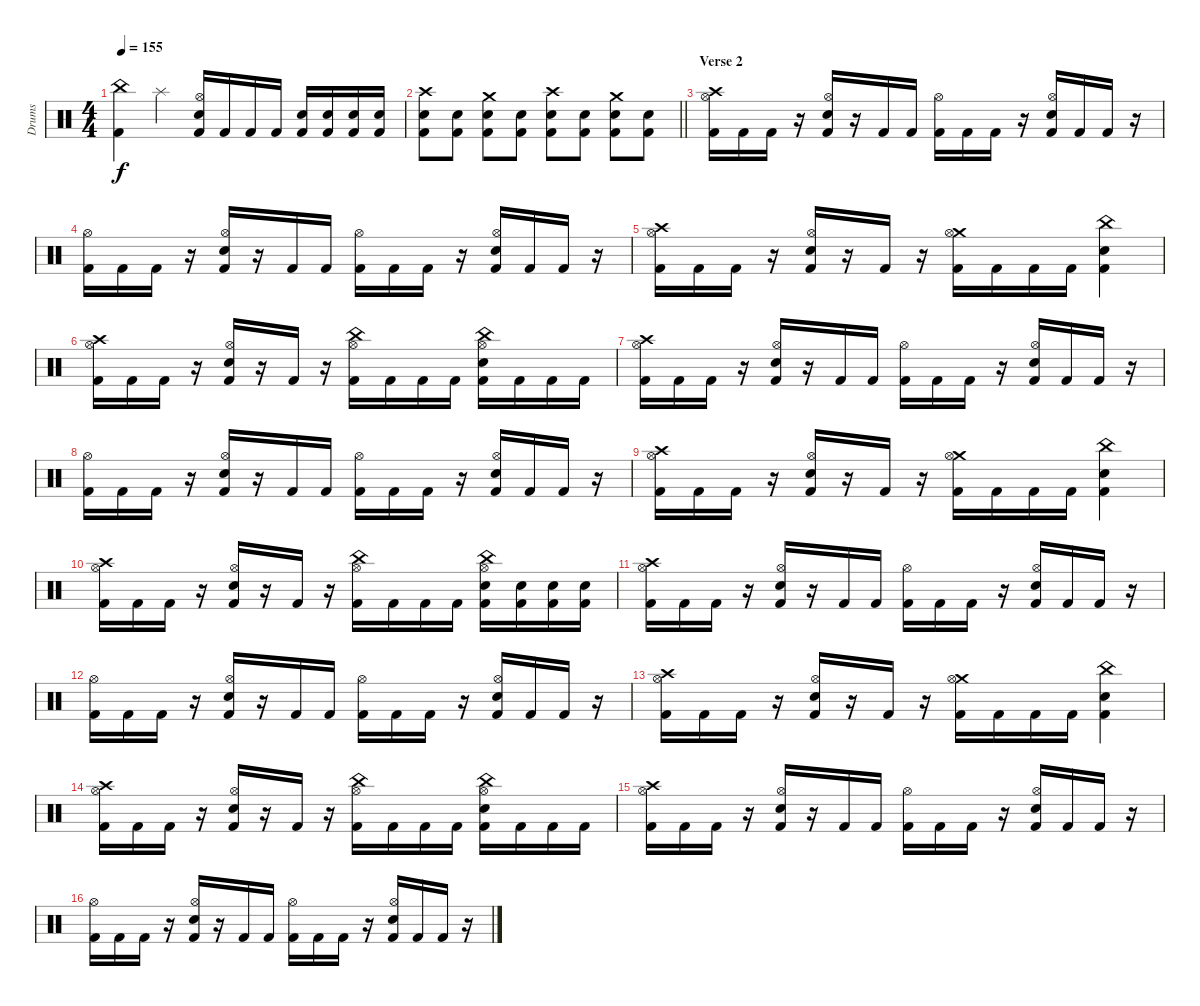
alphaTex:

\track ("Drums" "Drums") {instrument percussion}
\staff {score}
\articulation defaults
\ts (4 4)
\tempo 155
\clef neutral
\ks c
("China (hit)" "Kick (hit) 2").4{dy f} "Splash (hit)".4 ("Hi-Hat (open)" "Snare (hit) 2" "Kick (hit) 2").16 "Kick (hit) 2".16 "Kick (hit) 2".16 "Kick (hit) 2".16 ("Snare (hit) 2" "Kick (hit) 2").16 ("Snare (hit) 2" "Kick (hit) 2").16 ("Snare (hit) 2" "Kick (hit) 2").16 ("Snare (hit) 2" "Kick (hit) 2").16 |
\barLineRight lightlight
("Crash high (hit)" "Snare (hit) 2" "Kick (hit) 2").8 ("Snare (hit) 2" "Kick (hit) 2").8 ("Crash medium (hit)" "Snare (hit) 2" "Kick (hit) 2").8 ("Snare (hit) 2" "Kick (hit) 2").8 ("Crash high (hit)" "Snare (hit) 2" "Kick (hit) 2").8 ("Snare (hit) 2" "Kick (hit) 2").8 ("Crash medium (hit)" "Snare (hit) 2" "Kick (hit) 2").8 ("Snare (hit) 2" "Kick (hit) 2").8 |
\section ("" "Verse 2")
("Crash high (hit)" "Hi-Hat (open)" "Kick (hit) 2").16 "Kick (hit) 2".16 "Kick (hit) 2".16 r.16 ("Hi-Hat (open)" "Snare (hit) 2" "Kick (hit) 2").16 r.16 "Kick (hit) 2".16 "Kick (hit) 2".16 ("Hi-Hat (open)" "Kick (hit) 2").16 "Kick (hit) 2".16 "Kick (hit) 2".16 r.16 ("Hi-Hat (open)" "Snare (hit) 2" "Kick (hit) 2").16 "Kick (hit) 2".16 "Kick (hit) 2".16 r.16 |
("Hi-Hat (open)" "Kick (hit) 2").16 "Kick (hit) 2".16 "Kick (hit) 2".16 r.16 ("Hi-Hat (open)" "Snare (hit) 2" "Kick (hit) 2").16 r.16 "Kick (hit) 2".16 "Kick (hit) 2".16 ("Hi-Hat (open)" "Kick (hit) 2").16 "Kick (hit) 2".16 "Kick (hit) 2".16 r.16 ("Hi-Hat (open)" "Snare (hit) 2" "Kick (hit) 2").16 "Kick (hit) 2".16 "Kick (hit) 2".16 r.16 |
("Crash high (hit)" "Hi-Hat (open)" "Kick (hit) 2").16 "Kick (hit) 2".16 "Kick (hit) 2".16 r.16 ("Hi-Hat (open)" "Snare (hit) 2" "Kick (hit) 2").16 r.16 "Kick (hit) 2".16 r.16 ("Crash medium (hit)" "Hi-Hat (open)" "Kick (hit) 2").16 "Kick (hit) 2".16 "Kick (hit) 2".16 "Kick (hit) 2".16 ("China (hit)" "Snare (hit) 2" "Kick (hit) 2").4 |
("Crash high (hit)" "Hi-Hat (open)" "Kick (hit) 2").16 "Kick (hit) 2".16 "Kick (hit) 2".16 r.16 ("Hi-Hat (open)" "Snare (hit) 2" "Kick (hit) 2").16 r.16 "Kick (hit) 2".16 r.16 ("China (hit)" "Hi-Hat (open)" "Kick (hit) 2").16 "Kick (hit) 2".16 "Kick (hit) 2".16 "Kick (hit) 2".16 ("China (hit)" "Hi-Hat (open)" "Snare (hit) 2" "Kick (hit) 2").16 "Kick (hit) 2".16 "Kick (hit) 2".16 "Kick (hit) 2".16 |
("Crash high (hit)" "Hi-Hat (open)" "Kick (hit) 2").16 "Kick (hit) 2".16 "Kick (hit) 2".16 r.16 ("Hi-Hat (open)" "Snare (hit) 2" "Kick (hit) 2").16 r.16 "Kick (hit) 2".16 "Kick (hit) 2".16 ("Hi-Hat (open)" "Kick (hit) 2").16 "Kick (hit) 2".16 "Kick (hit) 2".16 r.16 ("Hi-Hat (open)" "Snare (hit) 2" "Kick (hit) 2").16 "Kick (hit) 2".16 "Kick (hit) 2".16 r.16 |
("Hi-Hat (open)" "Kick (hit) 2").16 "Kick (hit) 2".16 "Kick (hit) 2".16 r.16 ("Hi-Hat (open)" "Snare (hit) 2" "Kick (hit) 2").16 r.16 "Kick (hit) 2".16 "Kick (hit) 2".16 ("Hi-Hat (open)" "Kick (hit) 2").16 "Kick (hit) 2".16 "Kick (hit) 2".16 r.16 ("Hi-Hat (open)" "Snare (hit) 2" "Kick (hit) 2").16 "Kick (hit) 2".16 "Kick (hit) 2".16 r.16 |
("Crash high (hit)" "Hi-Hat (open)" "Kick (hit) 2").16 "Kick (hit) 2".16 "Kick (hit) 2".16 r.16 ("Hi-Hat (open)" "Snare (hit) 2" "Kick (hit) 2").16 r.16 "Kick (hit) 2".16 r.16 ("Crash medium (hit)" "Hi-Hat (open)" "Kick (hit) 2").16 "Kick (hit) 2".16 "Kick (hit) 2".16 "Kick (hit) 2".16 ("China (hit)" "Snare (hit) 2" "Kick (hit) 2").4 |
("Crash high (hit)" "Hi-Hat (open)" "Kick (hit) 2").16 "Kick (hit) 2".16 "Kick (hit) 2".16 r.16 ("Hi-Hat (open)" "Snare (hit) 2" "Kick (hit) 2").16 r.16 "Kick (hit) 2".16 r.16 ("China (hit)" "Hi-Hat (open)" "Kick (hit) 2").16 "Kick (hit) 2".16 "Kick (hit) 2".16 "Kick (hit) 2".16 ("China (hit)" "Hi-Hat (open)" "Snare (hit) 2" "Kick (hit) 2").16 ("Snare (hit) 2" "Kick (hit) 2").16 ("Snare (hit) 2" "Kick (hit) 2").16 ("Snare (hit) 2" "Kick (hit) 2").16 |
("Crash high (hit)" "Hi-Hat (open)" "Kick (hit) 2").16 "Kick (hit) 2".16 "Kick (hit) 2".16 r.16 ("Hi-Hat (open)" "Snare (hit) 2" "Kick (hit) 2").16 r.16 "Kick (hit) 2".16 "Kick (hit) 2".16 ("Hi-Hat (open)" "Kick (hit) 2").16 "Kick (hit) 2".16 "Kick (hit) 2".16 r.16 ("Hi-Hat (open)" "Snare (hit) 2" "Kick (hit) 2").16 "Kick (hit) 2".16 "Kick (hit) 2".16 r.16 |
("Hi-Hat (open)" "Kick (hit) 2").16 "Kick (hit) 2".16 "Kick (hit) 2".16 r.16 ("Hi-Hat (open)" "Snare (hit) 2" "Kick (hit) 2").16 r.16 "Kick (hit) 2".16 "Kick (hit) 2".16 ("Hi-Hat (open)" "Kick (hit) 2").16 "Kick (hit) 2".16 "Kick (hit) 2".16 r.16 ("Hi-Hat (open)" "Snare (hit) 2" "Kick (hit) 2").16 "Kick (hit) 2".16 "Kick (hit) 2".16 r.16 |
("Crash high (hit)" "Hi-Hat (open)" "Kick (hit) 2").16 "Kick (hit) 2".16 "Kick (hit) 2".16 r.16 ("Hi-Hat (open)" "Snare (hit) 2" "Kick (hit) 2").16 r.16 "Kick (hit) 2".16 r.16 ("Crash medium (hit)" "Hi-Hat (open)" "Kick (hit) 2").16 "Kick (hit) 2".16 "Kick (hit) 2".16 "Kick (hit) 2".16 ("China (hit)" "Snare (hit) 2" "Kick (hit) 2").4 |
("Crash high (hit)" "Hi-Hat (open)" "Kick (hit) 2").16 "Kick (hit) 2".16 "Kick (hit) 2".16 r.16 ("Hi-Hat (open)" "Snare (hit) 2" "Kick (hit) 2").16 r.16 "Kick (hit) 2".16 r.16 ("China (hit)" "Hi-Hat (open)" "Kick (hit) 2").16 "Kick (hit) 2".16 "Kick (hit) 2".16 "Kick (hit) 2".16 ("China (hit)" "Hi-Hat (open)" "Snare (hit) 2" "Kick (hit) 2").16 "Kick (hit) 2".16 "Kick (hit) 2".16 "Kick (hit) 2".16 |
("Crash high (hit)" "Hi-Hat (open)" "Kick (hit) 2").16 "Kick (hit) 2".16 "Kick (hit) 2".16 r.16 ("Hi-Hat (open)" "Snare (hit) 2" "Kick (hit) 2").16 r.16 "Kick (hit) 2".16 "Kick (hit) 2".16 ("Hi-Hat (open)" "Kick (hit) 2").16 "Kick (hit) 2".16 "Kick (hit) 2".16 r.16 ("Hi-Hat (open)" "Snare (hit) 2" "Kick (hit) 2").16 "Kick (hit) 2".16 "Kick (hit) 2".16 r.16 |
("Hi-Hat (open)" "Kick (hit) 2").16 "Kick (hit) 2".16 "Kick (hit) 2".16 r.16 ("Hi-Hat (open)" "Snare (hit) 2" "Kick (hit) 2").16 r.16 "Kick (hit) 2".16 "Kick (hit) 2".16 ("Hi-Hat (open)" "Kick (hit) 2").16 "Kick (hit) 2".16 "Kick (hit) 2".16 r.16 ("Hi-Hat (open)" "Snare (hit) 2" "Kick (hit) 2").16 "Kick (hit) 2".16 "Kick (hit) 2".16 r.16
